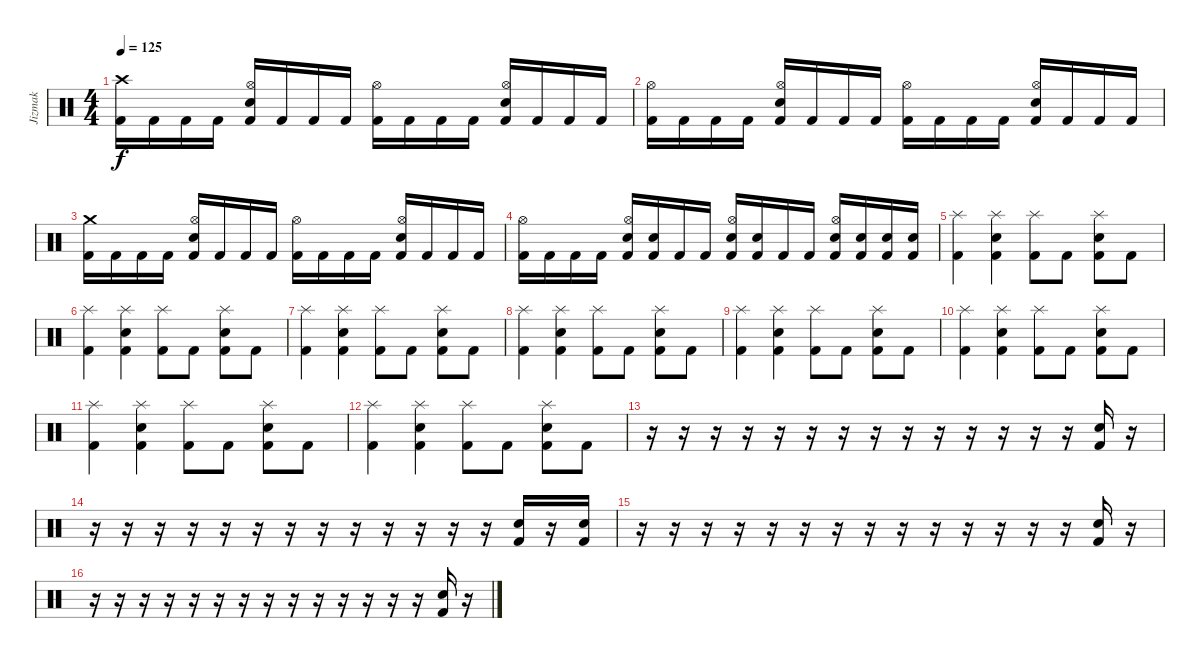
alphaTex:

\track ("Jizmak" "Jizmak") {instrument percussion}
\staff {score}
\articulation defaults
\ts (4 4)
\tempo 125
\clef neutral
\ks c
("Crash high (hit)" "Kick (hit) 2").16{dy f} "Kick (hit) 2".16 "Kick (hit) 2".16 "Kick (hit) 2".16 ("Hi-Hat (open)" "Snare (hit) 2" "Kick (hit) 2").16 "Kick (hit) 2".16 "Kick (hit) 2".16 "Kick (hit) 2".16 ("Hi-Hat (open)" "Kick (hit) 2").16 "Kick (hit) 2".16 "Kick (hit) 2".16 "Kick (hit) 2".16 ("Hi-Hat (open)" "Snare (hit) 2" "Kick (hit) 2").16 "Kick (hit) 2".16 "Kick (hit) 2".16 "Kick (hit) 2".16 |
("Hi-Hat (open)" "Kick (hit) 2").16 "Kick (hit) 2".16 "Kick (hit) 2".16 "Kick (hit) 2".16 ("Hi-Hat (open)" "Snare (hit) 2" "Kick (hit) 2").16 "Kick (hit) 2".16 "Kick (hit) 2".16 "Kick (hit) 2".16 ("Hi-Hat (open)" "Kick (hit) 2").16 "Kick (hit) 2".16 "Kick (hit) 2".16 "Kick (hit) 2".16 ("Hi-Hat (open)" "Snare (hit) 2" "Kick (hit) 2").16 "Kick (hit) 2".16 "Kick (hit) 2".16 "Kick (hit) 2".16 |
("Crash medium (hit)" "Kick (hit) 2").16 "Kick (hit) 2".16 "Kick (hit) 2".16 "Kick (hit) 2".16 ("Hi-Hat (open)" "Snare (hit) 2" "Kick (hit) 2").16 "Kick (hit) 2".16 "Kick (hit) 2".16 "Kick (hit) 2".16 ("Hi-Hat (open)" "Kick (hit) 2").16 "Kick (hit) 2".16 "Kick (hit) 2".16 "Kick (hit) 2".16 ("Hi-Hat (open)" "Snare (hit) 2" "Kick (hit) 2").16 "Kick (hit) 2".16 "Kick (hit) 2".16 "Kick (hit) 2".16 |
("Hi-Hat (open)" "Kick (hit) 2").16 "Kick (hit) 2".16 "Kick (hit) 2".16 "Kick (hit) 2".16 ("Hi-Hat (open)" "Snare (hit) 2" "Kick (hit) 2").16 ("Snare (hit) 2" "Kick (hit) 2").16 "Kick (hit) 2".16 "Kick (hit) 2".16 ("Hi-Hat (open)" "Snare (hit) 2" "Kick (hit) 2").16 ("Snare (hit) 2" "Kick (hit) 2").16 "Kick (hit) 2".16 "Kick (hit) 2".16 ("Hi-Hat (open)" "Snare (hit) 2" "Kick (hit) 2").16 ("Snare (hit) 2" "Kick (hit) 2").16 ("Snare (hit) 2" "Kick (hit) 2").16 ("Snare (hit) 2" "Kick (hit) 2").16 |
("Splash (hit)" "Kick (hit) 2").4 ("Splash (hit)" "Snare (hit) 2" "Kick (hit) 2").4 ("Splash (hit)" "Kick (hit) 2").8 "Kick (hit) 2".8 ("Splash (hit)" "Snare (hit) 2" "Kick (hit) 2").8 "Kick (hit) 2".8 |
("Splash (hit)" "Kick (hit) 2").4 ("Splash (hit)" "Snare (hit) 2" "Kick (hit) 2").4 ("Splash (hit)" "Kick (hit) 2").8 "Kick (hit) 2".8 ("Splash (hit)" "Snare (hit) 2" "Kick (hit) 2").8 "Kick (hit) 2".8 |
("Splash (hit)" "Kick (hit) 2").4 ("Splash (hit)" "Snare (hit) 2" "Kick (hit) 2").4 ("Splash (hit)" "Kick (hit) 2").8 "Kick (hit) 2".8 ("Splash (hit)" "Snare (hit) 2" "Kick (hit) 2").8 "Kick (hit) 2".8 |
("Splash (hit)" "Kick (hit) 2").4 ("Splash (hit)" "Snare (hit) 2" "Kick (hit) 2").4 ("Splash (hit)" "Kick (hit) 2").8 "Kick (hit) 2".8 ("Splash (hit)" "Snare (hit) 2" "Kick (hit) 2").8 "Kick (hit) 2".8 |
("Splash (hit)" "Kick (hit) 2").4 ("Splash (hit)" "Snare (hit) 2" "Kick (hit) 2").4 ("Splash (hit)" "Kick (hit) 2").8 "Kick (hit) 2".8 ("Splash (hit)" "Snare (hit) 2" "Kick (hit) 2").8 "Kick (hit) 2".8 |
("Splash (hit)" "Kick (hit) 2").4 ("Splash (hit)" "Snare (hit) 2" "Kick (hit) 2").4 ("Splash (hit)" "Kick (hit) 2").8 "Kick (hit) 2".8 ("Splash (hit)" "Snare (hit) 2" "Kick (hit) 2").8 "Kick (hit) 2".8 |
("Splash (hit)" "Kick (hit) 2").4 ("Splash (hit)" "Snare (hit) 2" "Kick (hit) 2").4 ("Splash (hit)" "Kick (hit) 2").8 "Kick (hit) 2".8 ("Splash (hit)" "Snare (hit) 2" "Kick (hit) 2").8 "Kick (hit) 2".8 |
("Splash (hit)" "Kick (hit) 2").4 ("Splash (hit)" "Snare (hit) 2" "Kick (hit) 2").4 ("Splash (hit)" "Kick (hit) 2").8 "Kick (hit) 2".8 ("Splash (hit)" "Snare (hit) 2" "Kick (hit) 2").8 "Kick (hit) 2".8 |
r.16 r.16 r.16 r.16 r.16 r.16 r.16 r.16 r.16 r.16 r.16 r.16 r.16 r.16 ("Snare (hit) 2" "Kick (hit) 2").16 r.16 |
r.16 r.16 r.16 r.16 r.16 r.16 r.16 r.16 r.16 r.16 r.16 r.16 r.16 ("Snare (hit) 2" "Kick (hit) 2").16 r.16 ("Snare (hit) 2" "Kick (hit) 2").16 |
r.16 r.16 r.16 r.16 r.16 r.16 r.16 r.16 r.16 r.16 r.16 r.16 r.16 r.16 ("Snare (hit) 2" "Kick (hit) 2").16 r.16 |
r.16 r.16 r.16 r.16 r.16 r.16 r.16 r.16 r.16 r.16 r.16 r.16 r.16 r.16 ("Snare (hit) 2" "Kick (hit) 2").16 r.16
